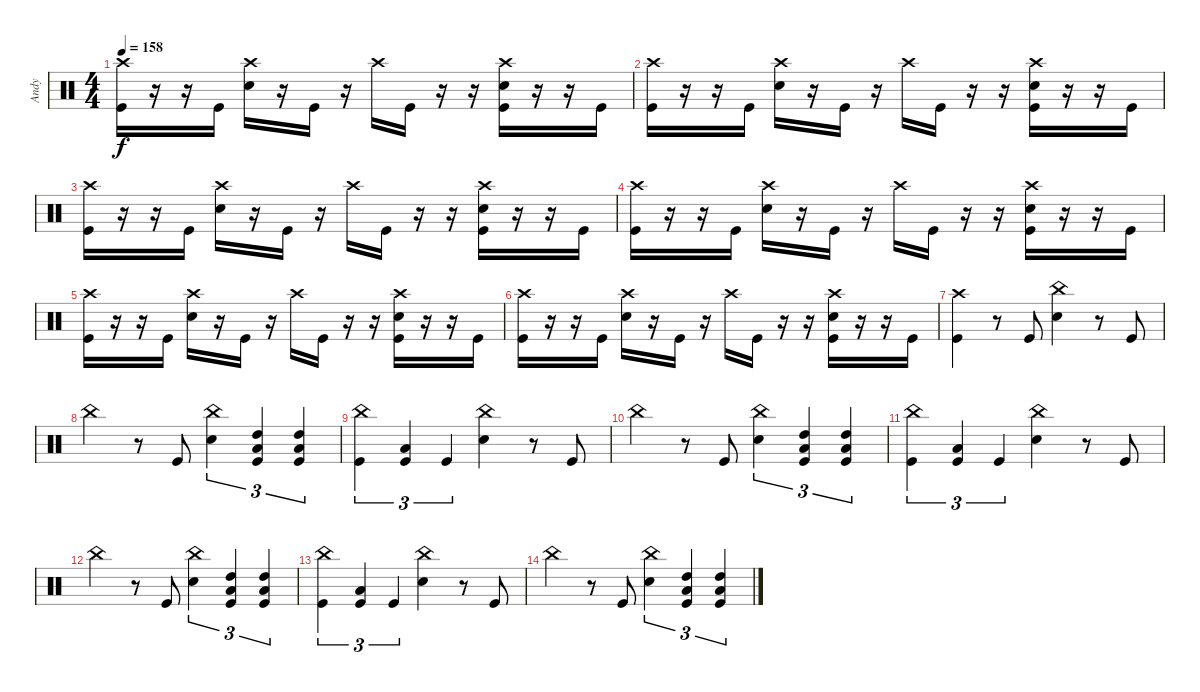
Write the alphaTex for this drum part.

\track ("Andy" "Andy") {instrument percussion}
\staff {score}
\articulation defaults
\ts (4 4)
\tempo 158
\clef neutral
\ks c
("Crash high (hit)" "Kick (hit)").16{dy f} r.16 r.16 "Kick (hit)".16 ("Crash high (hit)" "Snare (hit) 2").16 r.16 "Kick (hit)".16 r.16 "Crash high (hit)".16 "Kick (hit)".16 r.16 r.16 ("Crash high (hit)" "Kick (hit)" "Snare (hit) 2").16 r.16 r.16 "Kick (hit)".16 |
("Crash high (hit)" "Kick (hit)").16 r.16 r.16 "Kick (hit)".16 ("Crash high (hit)" "Snare (hit) 2").16 r.16 "Kick (hit)".16 r.16 "Crash high (hit)".16 "Kick (hit)".16 r.16 r.16 ("Crash high (hit)" "Kick (hit)" "Snare (hit) 2").16 r.16 r.16 "Kick (hit)".16 |
("Crash high (hit)" "Kick (hit)").16 r.16 r.16 "Kick (hit)".16 ("Crash high (hit)" "Snare (hit) 2").16 r.16 "Kick (hit)".16 r.16 "Crash high (hit)".16 "Kick (hit)".16 r.16 r.16 ("Crash high (hit)" "Kick (hit)" "Snare (hit) 2").16 r.16 r.16 "Kick (hit)".16 |
("Crash high (hit)" "Kick (hit)").16 r.16 r.16 "Kick (hit)".16 ("Crash high (hit)" "Snare (hit) 2").16 r.16 "Kick (hit)".16 r.16 "Crash high (hit)".16 "Kick (hit)".16 r.16 r.16 ("Crash high (hit)" "Kick (hit)" "Snare (hit) 2").16 r.16 r.16 "Kick (hit)".16 |
("Crash high (hit)" "Kick (hit)").16 r.16 r.16 "Kick (hit)".16 ("Crash high (hit)" "Snare (hit) 2").16 r.16 "Kick (hit)".16 r.16 "Crash high (hit)".16 "Kick (hit)".16 r.16 r.16 ("Crash high (hit)" "Kick (hit)" "Snare (hit) 2").16 r.16 r.16 "Kick (hit)".16 |
("Crash high (hit)" "Kick (hit)").16 r.16 r.16 "Kick (hit)".16 ("Crash high (hit)" "Snare (hit) 2").16 r.16 "Kick (hit)".16 r.16 "Crash high (hit)".16 "Kick (hit)".16 r.16 r.16 ("Crash high (hit)" "Kick (hit)" "Snare (hit) 2").16 r.16 r.16 "Kick (hit)".16 |
("Kick (hit)" "Crash high (hit)").4 r.8 "Kick (hit)".8 ("Snare (hit) 2" "China (hit)").4 r.8 "Kick (hit)".8 |
"China (hit)".4 r.8 "Kick (hit)".8 ("Snare (hit) 2" "China (hit)").4{tu (3 2)} ("High Tom (hit)" "Low Floor Tom (hit)" "Kick (hit)").4{tu (3 2)} ("High Tom (hit)" "Low Floor Tom (hit)" "Kick (hit)").4{tu (3 2)} |
("Kick (hit)" "China (hit)").4{tu (3 2)} ("Low Floor Tom (hit)" "Kick (hit)").4{tu (3 2)} "Kick (hit)".4{tu (3 2)} ("Snare (hit) 2" "China (hit)").4 r.8 "Kick (hit)".8 |
"China (hit)".4 r.8 "Kick (hit)".8 ("Snare (hit) 2" "China (hit)").4{tu (3 2)} ("High Tom (hit)" "Low Floor Tom (hit)" "Kick (hit)").4{tu (3 2)} ("High Tom (hit)" "Low Floor Tom (hit)" "Kick (hit)").4{tu (3 2)} |
("Kick (hit)" "China (hit)").4{tu (3 2)} ("Low Floor Tom (hit)" "Kick (hit)").4{tu (3 2)} "Kick (hit)".4{tu (3 2)} ("Snare (hit) 2" "China (hit)").4 r.8 "Kick (hit)".8 |
"China (hit)".4 r.8 "Kick (hit)".8 ("Snare (hit) 2" "China (hit)").4{tu (3 2)} ("High Tom (hit)" "Low Floor Tom (hit)" "Kick (hit)").4{tu (3 2)} ("High Tom (hit)" "Low Floor Tom (hit)" "Kick (hit)").4{tu (3 2)} |
("Kick (hit)" "China (hit)").4{tu (3 2)} ("Low Floor Tom (hit)" "Kick (hit)").4{tu (3 2)} "Kick (hit)".4{tu (3 2)} ("Snare (hit) 2" "China (hit)").4 r.8 "Kick (hit)".8 |
"China (hit)".4 r.8 "Kick (hit)".8 ("Snare (hit) 2" "China (hit)").4{tu (3 2)} ("High Tom (hit)" "Low Floor Tom (hit)" "Kick (hit)").4{tu (3 2)} ("High Tom (hit)" "Low Floor Tom (hit)" "Kick (hit)").4{tu (3 2)}
